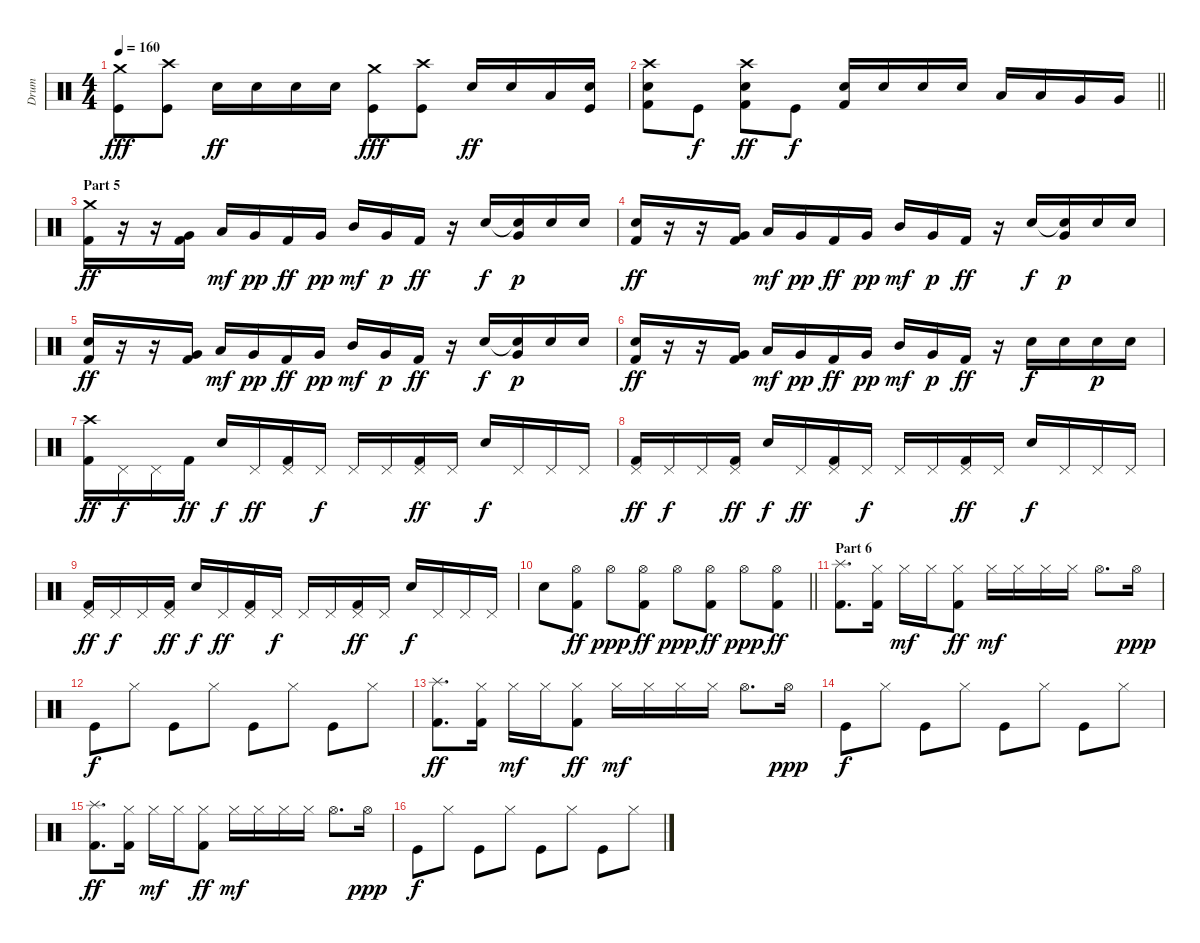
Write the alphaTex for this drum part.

\track ("Drum" "Drum") {instrument percussion}
\staff {score}
\articulation defaults
\ts (4 4)
\tempo 160
\clef neutral
\ks c
("Crash medium (hit)" "Kick (hit)").8{dy fff} ("Crash high (hit)" "Kick (hit)").8 "Electric Snare (hit)".16{dy ff} "Electric Snare (hit)".16 "Electric Snare (hit)".16 "Electric Snare (hit)".16 ("Crash medium (hit)" "Kick (hit)").8{dy fff} ("Crash high (hit)" "Kick (hit)").8 "Electric Snare (hit)".16{dy ff} "Electric Snare (hit)".16 "Low Tom (hit)".16 ("Electric Snare (hit)" "Kick (hit)").16 |
\barLineRight lightlight
("Crash high (hit)" "Electric Snare (hit)" "Kick (hit) 2").8 "Kick (hit)".8{dy f} ("Crash high (hit)" "Electric Snare (hit)" "Kick (hit) 2").8{dy ff} "Kick (hit)".8{dy f} ("Electric Snare (hit)" "Kick (hit) 2").16 "Electric Snare (hit)".16 "Electric Snare (hit)".16 "Electric Snare (hit)".16 "Low Tom (hit)".16 "Low Tom (hit)".16 "Very Low Tom (hit)".16 "Very Low Tom (hit)".16 |
\section ("" "Part 5")
("Crash medium (hit)" "Kick (hit) 2").16{dy ff} r.16 r.16 ("Very Low Tom (hit)" "Kick (hit) 2").16 "Low Tom (hit)".16{dy mf} "Very Low Tom (hit)".16{dy pp} "Kick (hit) 2".16{dy ff} "Very Low Tom (hit)".16{dy pp} "Mid Tom (hit)".16{dy mf} "Very Low Tom (hit)".16{dy p} "Kick (hit) 2".16{dy ff} r.16 "Electric Snare (hit)".16{dy f} ("Snare (hit)"{t} "Very Low Tom (hit)").16{dy p} "Electric Snare (hit)".16 "Electric Snare (hit)".16 |
("Electric Snare (hit)" "Kick (hit) 2").16{dy ff} r.16 r.16 ("Very Low Tom (hit)" "Kick (hit) 2").16 "Low Tom (hit)".16{dy mf} "Very Low Tom (hit)".16{dy pp} "Kick (hit) 2".16{dy ff} "Very Low Tom (hit)".16{dy pp} "Mid Tom (hit)".16{dy mf} "Very Low Tom (hit)".16{dy p} "Kick (hit) 2".16{dy ff} r.16 "Electric Snare (hit)".16{dy f} ("Snare (hit)"{t} "Very Low Tom (hit)").16{dy p} "Electric Snare (hit)".16 "Electric Snare (hit)".16 |
("Electric Snare (hit)" "Kick (hit) 2").16{dy ff} r.16 r.16 ("Very Low Tom (hit)" "Kick (hit) 2").16 "Low Tom (hit)".16{dy mf} "Very Low Tom (hit)".16{dy pp} "Kick (hit) 2".16{dy ff} "Very Low Tom (hit)".16{dy pp} "Mid Tom (hit)".16{dy mf} "Very Low Tom (hit)".16{dy p} "Kick (hit) 2".16{dy ff} r.16 "Electric Snare (hit)".16{dy f} ("Snare (hit)"{t} "Very Low Tom (hit)").16{dy p} "Electric Snare (hit)".16 "Electric Snare (hit)".16 |
("Electric Snare (hit)" "Kick (hit) 2").16{dy ff} r.16 r.16 ("Very Low Tom (hit)" "Kick (hit) 2").16 "Low Tom (hit)".16{dy mf} "Very Low Tom (hit)".16{dy pp} "Kick (hit) 2".16{dy ff} "Very Low Tom (hit)".16{dy pp} "Mid Tom (hit)".16{dy mf} "Very Low Tom (hit)".16{dy p} "Kick (hit) 2".16{dy ff} r.16 "Electric Snare (hit)".16{dy f} "Electric Snare (hit)".16 "Electric Snare (hit)".16{dy p} "Electric Snare (hit)".16 |
("Crash high (hit)" "Kick (hit) 2").16{dy ff} "Pedal Hi-Hat (hit)".16{dy f} "Pedal Hi-Hat (hit)".16 "Kick (hit) 2".16{dy ff} "Electric Snare (hit)".16{dy f} "Pedal Hi-Hat (hit)".16{dy ff} ("Pedal Hi-Hat (hit)" "Kick (hit) 2").16 "Pedal Hi-Hat (hit)".16{dy f} "Pedal Hi-Hat (hit)".16 "Pedal Hi-Hat (hit)".16 ("Pedal Hi-Hat (hit)" "Kick (hit) 2").16{dy ff} "Pedal Hi-Hat (hit)".16 "Electric Snare (hit)".16{dy f} "Pedal Hi-Hat (hit)".16 "Pedal Hi-Hat (hit)".16 "Pedal Hi-Hat (hit)".16 |
("Pedal Hi-Hat (hit)" "Kick (hit) 2").16{dy ff} "Pedal Hi-Hat (hit)".16{dy f} "Pedal Hi-Hat (hit)".16 ("Pedal Hi-Hat (hit)" "Kick (hit) 2").16{dy ff} "Electric Snare (hit)".16{dy f} "Pedal Hi-Hat (hit)".16{dy ff} ("Pedal Hi-Hat (hit)" "Kick (hit) 2").16 "Pedal Hi-Hat (hit)".16{dy f} "Pedal Hi-Hat (hit)".16 "Pedal Hi-Hat (hit)".16 ("Pedal Hi-Hat (hit)" "Kick (hit) 2").16{dy ff} "Pedal Hi-Hat (hit)".16 "Electric Snare (hit)".16{dy f} "Pedal Hi-Hat (hit)".16 "Pedal Hi-Hat (hit)".16 "Pedal Hi-Hat (hit)".16 |
("Pedal Hi-Hat (hit)" "Kick (hit) 2").16{dy ff} "Pedal Hi-Hat (hit)".16{dy f} "Pedal Hi-Hat (hit)".16 ("Pedal Hi-Hat (hit)" "Kick (hit) 2").16{dy ff} "Electric Snare (hit)".16{dy f} "Pedal Hi-Hat (hit)".16{dy ff} ("Pedal Hi-Hat (hit)" "Kick (hit) 2").16 "Pedal Hi-Hat (hit)".16{dy f} "Pedal Hi-Hat (hit)".16 "Pedal Hi-Hat (hit)".16 ("Pedal Hi-Hat (hit)" "Kick (hit) 2").16{dy ff} "Pedal Hi-Hat (hit)".16 "Electric Snare (hit)".16{dy f} "Pedal Hi-Hat (hit)".16 "Pedal Hi-Hat (hit)".16 "Pedal Hi-Hat (hit)".16 |
\barLineRight lightlight "Electric Snare (hit)".8
("Hi-Hat (open)" "Kick (hit) 2").8{dy ff} "Hi-Hat (open)".8{dy ppp} ("Hi-Hat (open)" "Kick (hit) 2").8{dy ff} "Hi-Hat (open)".8{dy ppp} ("Hi-Hat (open)" "Kick (hit) 2").8{dy ff} "Hi-Hat (open)".8{dy ppp} ("Hi-Hat (open)" "Kick (hit) 2").8{dy ff} |
\section ("" "Part 6")
("Splash (hit)" "Kick (hit) 2").8{d} ("Hi-Hat (closed)" "Kick (hit) 2").16 "Hi-Hat (closed)".16{dy mf} "Hi-Hat (closed)".16 ("Hi-Hat (closed)" "Kick (hit) 2").8{dy ff} "Hi-Hat (closed)".16{dy mf} "Hi-Hat (closed)".16 "Hi-Hat (closed)".16 "Hi-Hat (closed)".16 "Hi-Hat (open)".8{d} "Hi-Hat (open)".16{dy ppp} |
"Kick (hit)".8{dy f} "Hi-Hat (closed)".8 "Kick (hit)".8 "Hi-Hat (closed)".8 "Kick (hit)".8 "Hi-Hat (closed)".8 "Kick (hit)".8 "Hi-Hat (closed)".8 |
("Splash (hit)" "Kick (hit) 2").8{d dy ff} ("Hi-Hat (closed)" "Kick (hit) 2").16 "Hi-Hat (closed)".16{dy mf} "Hi-Hat (closed)".16 ("Hi-Hat (closed)" "Kick (hit) 2").8{dy ff} "Hi-Hat (closed)".16{dy mf} "Hi-Hat (closed)".16 "Hi-Hat (closed)".16 "Hi-Hat (closed)".16 "Hi-Hat (open)".8{d} "Hi-Hat (open)".16{dy ppp} |
"Kick (hit)".8{dy f} "Hi-Hat (closed)".8 "Kick (hit)".8 "Hi-Hat (closed)".8 "Kick (hit)".8 "Hi-Hat (closed)".8 "Kick (hit)".8 "Hi-Hat (closed)".8 |
("Splash (hit)" "Kick (hit) 2").8{d dy ff} ("Hi-Hat (closed)" "Kick (hit) 2").16 "Hi-Hat (closed)".16{dy mf} "Hi-Hat (closed)".16 ("Hi-Hat (closed)" "Kick (hit) 2").8{dy ff} "Hi-Hat (closed)".16{dy mf} "Hi-Hat (closed)".16 "Hi-Hat (closed)".16 "Hi-Hat (closed)".16 "Hi-Hat (open)".8{d} "Hi-Hat (open)".16{dy ppp} |
"Kick (hit)".8{dy f} "Hi-Hat (closed)".8 "Kick (hit)".8 "Hi-Hat (closed)".8 "Kick (hit)".8 "Hi-Hat (closed)".8 "Kick (hit)".8 "Hi-Hat (closed)".8
